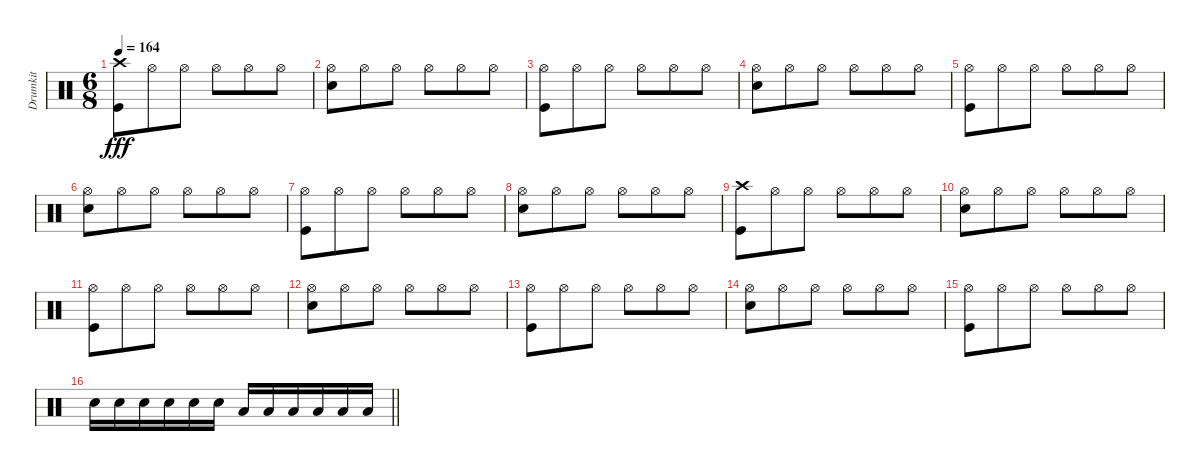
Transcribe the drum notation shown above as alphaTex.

\track ("Drumkit" "Drumkit") {instrument percussion}
\staff {score}
\articulation defaults
\ts (6 8)
\tempo 164
\clef neutral
\ks c
("Kick (hit)" "Crash high (hit)").8{dy fff} "Hi-Hat (open)".8 "Hi-Hat (open)".8 "Hi-Hat (open)".8 "Hi-Hat (open)".8 "Hi-Hat (open)".8 |
("Hi-Hat (open)" "Snare (hit) 2").8 "Hi-Hat (open)".8 "Hi-Hat (open)".8 "Hi-Hat (open)".8 "Hi-Hat (open)".8 "Hi-Hat (open)".8 |
("Hi-Hat (open)" "Kick (hit)").8 "Hi-Hat (open)".8 "Hi-Hat (open)".8 "Hi-Hat (open)".8 "Hi-Hat (open)".8 "Hi-Hat (open)".8 |
("Hi-Hat (open)" "Snare (hit) 2").8 "Hi-Hat (open)".8 "Hi-Hat (open)".8 "Hi-Hat (open)".8 "Hi-Hat (open)".8 "Hi-Hat (open)".8 |
("Hi-Hat (open)" "Kick (hit)").8 "Hi-Hat (open)".8 "Hi-Hat (open)".8 "Hi-Hat (open)".8 "Hi-Hat (open)".8 "Hi-Hat (open)".8 |
("Hi-Hat (open)" "Snare (hit) 2").8 "Hi-Hat (open)".8 "Hi-Hat (open)".8 "Hi-Hat (open)".8 "Hi-Hat (open)".8 "Hi-Hat (open)".8 |
("Hi-Hat (open)" "Kick (hit)").8 "Hi-Hat (open)".8 "Hi-Hat (open)".8 "Hi-Hat (open)".8 "Hi-Hat (open)".8 "Hi-Hat (open)".8 |
("Hi-Hat (open)" "Snare (hit) 2").8 "Hi-Hat (open)".8 "Hi-Hat (open)".8 "Hi-Hat (open)".8 "Hi-Hat (open)".8 "Hi-Hat (open)".8 |
("Kick (hit)" "Crash high (hit)").8 "Hi-Hat (open)".8 "Hi-Hat (open)".8 "Hi-Hat (open)".8 "Hi-Hat (open)".8 "Hi-Hat (open)".8 |
("Hi-Hat (open)" "Snare (hit) 2").8 "Hi-Hat (open)".8 "Hi-Hat (open)".8 "Hi-Hat (open)".8 "Hi-Hat (open)".8 "Hi-Hat (open)".8 |
("Hi-Hat (open)" "Kick (hit)").8 "Hi-Hat (open)".8 "Hi-Hat (open)".8 "Hi-Hat (open)".8 "Hi-Hat (open)".8 "Hi-Hat (open)".8 |
("Hi-Hat (open)" "Snare (hit) 2").8 "Hi-Hat (open)".8 "Hi-Hat (open)".8 "Hi-Hat (open)".8 "Hi-Hat (open)".8 "Hi-Hat (open)".8 |
("Hi-Hat (open)" "Kick (hit)").8 "Hi-Hat (open)".8 "Hi-Hat (open)".8 "Hi-Hat (open)".8 "Hi-Hat (open)".8 "Hi-Hat (open)".8 |
("Hi-Hat (open)" "Snare (hit) 2").8 "Hi-Hat (open)".8 "Hi-Hat (open)".8 "Hi-Hat (open)".8 "Hi-Hat (open)".8 "Hi-Hat (open)".8 |
("Hi-Hat (open)" "Kick (hit)").8 "Hi-Hat (open)".8 "Hi-Hat (open)".8 "Hi-Hat (open)".8 "Hi-Hat (open)".8 "Hi-Hat (open)".8 |
\barLineRight lightlight "Snare (hit) 2".16 "Snare (hit) 2".16 "Snare (hit) 2".16 "Snare (hit) 2".16 "Snare (hit) 2".16 "Snare (hit) 2".16 "Low Tom (hit)".16 "Low Tom (hit)".16 "Low Tom (hit)".16 "Low Tom (hit)".16 "Low Tom (hit)".16 "Low Tom (hit)".16
